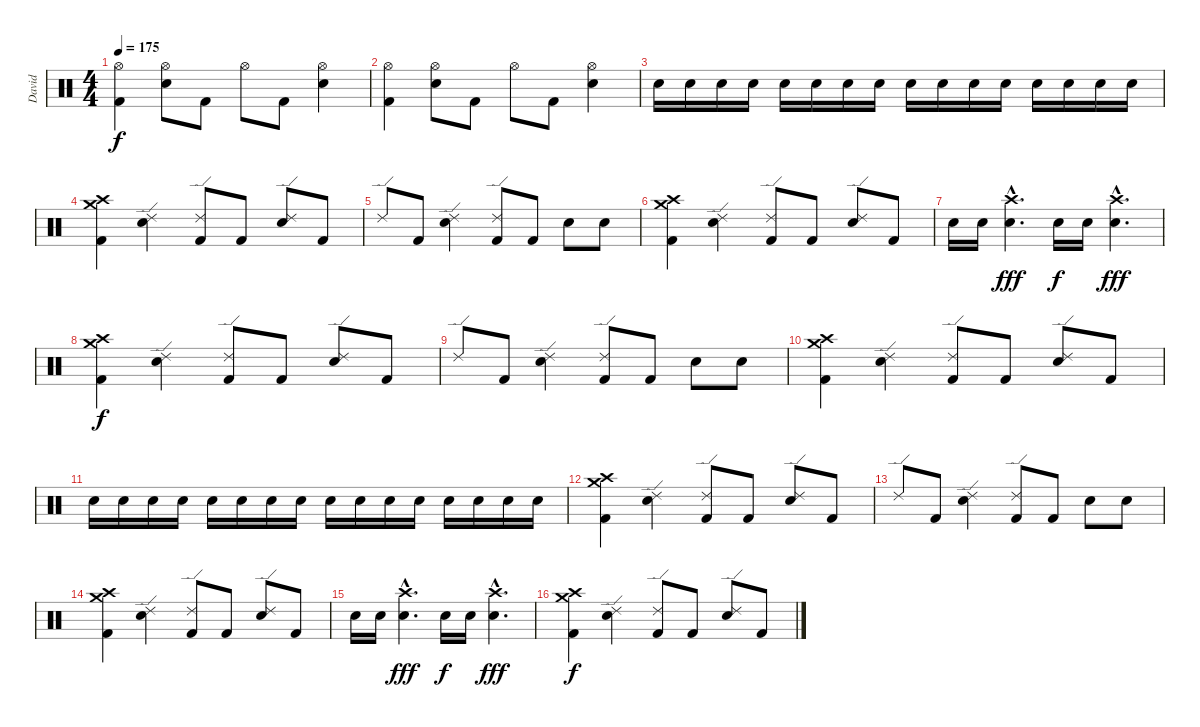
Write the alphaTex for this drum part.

\track ("David" "David") {instrument percussion}
\staff {score}
\articulation defaults
\ts (4 4)
\tempo 175
\clef neutral
\ks c
("Hi-Hat (open)" "Kick (hit) 2").4{dy f} ("Hi-Hat (open)" "Snare (hit) 2").8 "Kick (hit) 2".8 "Hi-Hat (open)".8 "Kick (hit) 2".8 ("Hi-Hat (open)" "Snare (hit) 2").4 |
("Hi-Hat (open)" "Kick (hit) 2").4 ("Hi-Hat (open)" "Snare (hit) 2").8 "Kick (hit) 2".8 "Hi-Hat (open)".8 "Kick (hit) 2".8 ("Hi-Hat (open)" "Snare (hit) 2").4 |
"Snare (hit) 2".16 "Snare (hit) 2".16 "Snare (hit) 2".16 "Snare (hit) 2".16 "Snare (hit) 2".16 "Snare (hit) 2".16 "Snare (hit) 2".16 "Snare (hit) 2".16 "Snare (hit) 2".16 "Snare (hit) 2".16 "Snare (hit) 2".16 "Snare (hit) 2".16 "Snare (hit) 2".16 "Snare (hit) 2".16 "Snare (hit) 2".16 "Snare (hit) 2".16 |
("Crash high (hit)" "Crash medium (hit)" "Kick (hit) 2").4 ("Ride (edge) 2" "Snare (hit) 2").4 ("Ride (edge) 2" "Kick (hit) 2").8 "Kick (hit) 2".8 ("Ride (edge) 2" "Snare (hit) 2").8 "Kick (hit) 2".8 |
"Ride (edge) 2".8 "Kick (hit) 2".8 ("Ride (edge) 2" "Snare (hit) 2").4 ("Ride (edge) 2" "Kick (hit) 2").8 "Kick (hit) 2".8 "Snare (hit) 2".8 "Snare (hit) 2".8 |
("Crash high (hit)" "Crash medium (hit)" "Kick (hit) 2").4 ("Ride (edge) 2" "Snare (hit) 2").4 ("Ride (edge) 2" "Kick (hit) 2").8 "Kick (hit) 2".8 ("Ride (edge) 2" "Snare (hit) 2").8 "Kick (hit) 2".8 |
"Snare (hit) 2".16 "Snare (hit) 2".16 ("Crash high (hit)" "Snare (hit) 2"{hac}).4{d dy fff} "Snare (hit) 2".16{dy f} "Snare (hit) 2".16 ("Crash high (hit)" "Snare (hit) 2"{hac}).4{d dy fff} |
("Crash high (hit)" "Crash medium (hit)" "Kick (hit) 2").4{dy f} ("Ride (edge) 2" "Snare (hit) 2").4 ("Ride (edge) 2" "Kick (hit) 2").8 "Kick (hit) 2".8 ("Ride (edge) 2" "Snare (hit) 2").8 "Kick (hit) 2".8 |
"Ride (edge) 2".8 "Kick (hit) 2".8 ("Ride (edge) 2" "Snare (hit) 2").4 ("Ride (edge) 2" "Kick (hit) 2").8 "Kick (hit) 2".8 "Snare (hit) 2".8 "Snare (hit) 2".8 |
("Crash high (hit)" "Crash medium (hit)" "Kick (hit) 2").4 ("Ride (edge) 2" "Snare (hit) 2").4 ("Ride (edge) 2" "Kick (hit) 2").8 "Kick (hit) 2".8 ("Ride (edge) 2" "Snare (hit) 2").8 "Kick (hit) 2".8 |
"Snare (hit) 2".16 "Snare (hit) 2".16 "Snare (hit) 2".16 "Snare (hit) 2".16 "Snare (hit) 2".16 "Snare (hit) 2".16 "Snare (hit) 2".16 "Snare (hit) 2".16 "Snare (hit) 2".16 "Snare (hit) 2".16 "Snare (hit) 2".16 "Snare (hit) 2".16 "Snare (hit) 2".16 "Snare (hit) 2".16 "Snare (hit) 2".16 "Snare (hit) 2".16 |
("Crash high (hit)" "Crash medium (hit)" "Kick (hit) 2").4 ("Ride (edge) 2" "Snare (hit) 2").4 ("Ride (edge) 2" "Kick (hit) 2").8 "Kick (hit) 2".8 ("Ride (edge) 2" "Snare (hit) 2").8 "Kick (hit) 2".8 |
"Ride (edge) 2".8 "Kick (hit) 2".8 ("Ride (edge) 2" "Snare (hit) 2").4 ("Ride (edge) 2" "Kick (hit) 2").8 "Kick (hit) 2".8 "Snare (hit) 2".8 "Snare (hit) 2".8 |
("Crash high (hit)" "Crash medium (hit)" "Kick (hit) 2").4 ("Ride (edge) 2" "Snare (hit) 2").4 ("Ride (edge) 2" "Kick (hit) 2").8 "Kick (hit) 2".8 ("Ride (edge) 2" "Snare (hit) 2").8 "Kick (hit) 2".8 |
"Snare (hit) 2".16 "Snare (hit) 2".16 ("Crash high (hit)"{hac} "Snare (hit) 2").4{d dy fff} "Snare (hit) 2".16{dy f} "Snare (hit) 2".16 ("Crash high (hit)" "Snare (hit) 2"{hac}).4{d dy fff} |
("Crash high (hit)" "Crash medium (hit)" "Kick (hit) 2").4{dy f} ("Ride (edge) 2" "Snare (hit) 2").4 ("Ride (edge) 2" "Kick (hit) 2").8 "Kick (hit) 2".8 ("Ride (edge) 2" "Snare (hit) 2").8 "Kick (hit) 2".8
